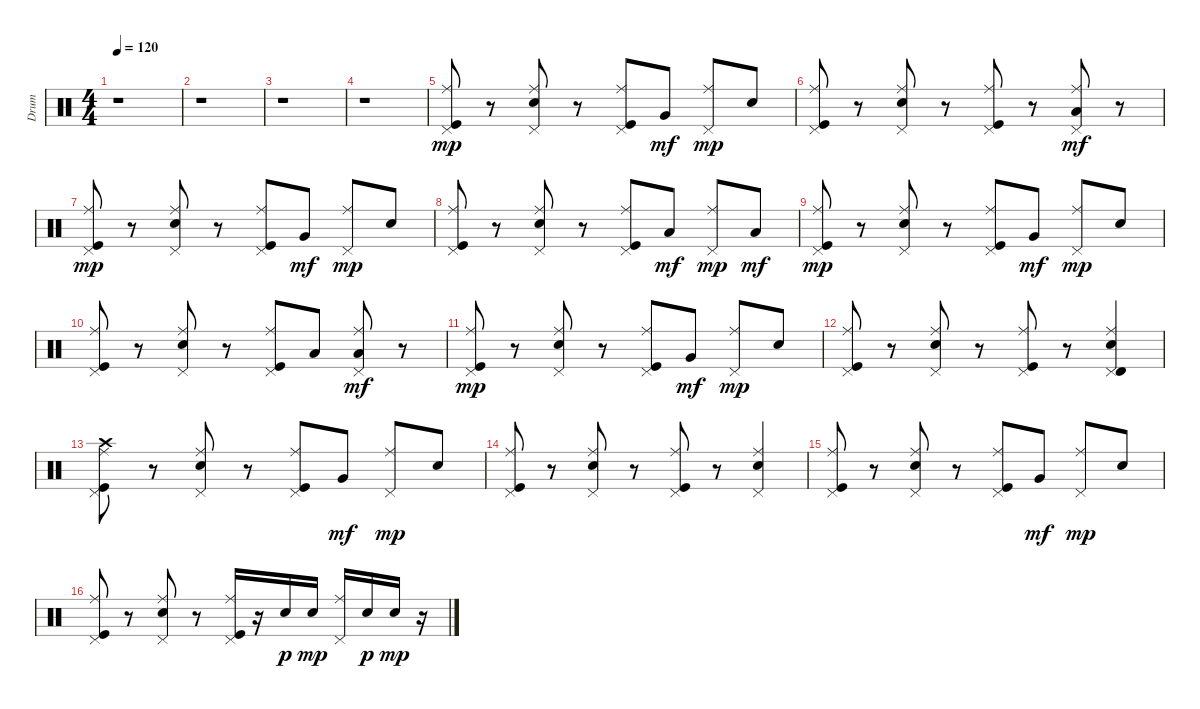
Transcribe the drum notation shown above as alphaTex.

\track ("Drum" "Drum") {instrument percussion}
\staff {score}
\articulation defaults
\ts (4 4)
\tempo 120
\clef neutral
\ks c
r.1{dy mp} |
r.1 |
r.1 |
r.1 |
("Pedal Hi-Hat (hit)" "Ride (middle)" "Kick (hit)").8 r.8 ("Pedal Hi-Hat (hit)" "Snare (hit) 2" "Ride (middle)").8 r.8 ("Pedal Hi-Hat (hit)" "Ride (middle)" "Kick (hit)").8 "Very Low Tom (hit)".8{dy mf} ("Pedal Hi-Hat (hit)" "Ride (middle)").8{dy mp} "Snare (hit) 2".8 |
("Pedal Hi-Hat (hit)" "Ride (middle)" "Kick (hit)").8 r.8 ("Pedal Hi-Hat (hit)" "Snare (hit) 2" "Ride (middle)").8 r.8 ("Pedal Hi-Hat (hit)" "Ride (middle)" "Kick (hit)").8 r.8 ("Pedal Hi-Hat (hit)" "Ride (middle)" "Low Floor Tom (hit)").8{dy mf} r.8 |
("Pedal Hi-Hat (hit)" "Ride (middle)" "Kick (hit)").8{dy mp} r.8 ("Pedal Hi-Hat (hit)" "Snare (hit) 2" "Ride (middle)").8 r.8 ("Pedal Hi-Hat (hit)" "Ride (middle)" "Kick (hit)").8 "Very Low Tom (hit)".8{dy mf} ("Pedal Hi-Hat (hit)" "Ride (middle)").8{dy mp} "Snare (hit) 2".8 |
("Pedal Hi-Hat (hit)" "Ride (middle)" "Kick (hit)").8 r.8 ("Pedal Hi-Hat (hit)" "Snare (hit) 2" "Ride (middle)").8 r.8 ("Pedal Hi-Hat (hit)" "Ride (middle)" "Kick (hit)").8 "Low Floor Tom (hit)".8{dy mf} ("Pedal Hi-Hat (hit)" "Ride (middle)").8{dy mp} "Low Floor Tom (hit)".8{dy mf} |
("Pedal Hi-Hat (hit)" "Ride (middle)" "Kick (hit)").8{dy mp} r.8 ("Pedal Hi-Hat (hit)" "Snare (hit) 2" "Ride (middle)").8 r.8 ("Pedal Hi-Hat (hit)" "Ride (middle)" "Kick (hit)").8 "Very Low Tom (hit)".8{dy mf} ("Pedal Hi-Hat (hit)" "Ride (middle)").8{dy mp} "Snare (hit) 2".8 |
("Pedal Hi-Hat (hit)" "Ride (middle)" "Kick (hit)").8 r.8 ("Pedal Hi-Hat (hit)" "Snare (hit) 2" "Ride (middle)").8 r.8 ("Pedal Hi-Hat (hit)" "Ride (middle)" "Kick (hit)").8 "Low Tom (hit)".8 ("Pedal Hi-Hat (hit)" "Ride (middle)" "Low Floor Tom (hit)").8{dy mf} r.8 |
("Pedal Hi-Hat (hit)" "Ride (middle)" "Kick (hit)").8{dy mp} r.8 ("Pedal Hi-Hat (hit)" "Snare (hit) 2" "Ride (middle)").8 r.8 ("Pedal Hi-Hat (hit)" "Ride (middle)" "Kick (hit)").8 "Very Low Tom (hit)".8{dy mf} ("Pedal Hi-Hat (hit)" "Ride (middle)").8{dy mp} "Snare (hit) 2".8 |
("Pedal Hi-Hat (hit)" "Ride (middle)" "Kick (hit)").8 r.8 ("Pedal Hi-Hat (hit)" "Snare (hit) 2" "Ride (middle)").8 r.8 ("Pedal Hi-Hat (hit)" "Ride (middle)" "Kick (hit)").8 r.8 ("Pedal Hi-Hat (hit)" "Electric Snare (hit)" "Timbale high (hit)" "Ride (middle)").4 |
("Pedal Hi-Hat (hit)" "Crash high (hit)" "Ride (middle)" "Kick (hit)").8 r.8 ("Pedal Hi-Hat (hit)" "Snare (hit) 2" "Ride (middle)").8 r.8 ("Pedal Hi-Hat (hit)" "Ride (middle)" "Kick (hit)").8 "Very Low Tom (hit)".8{dy mf} ("Pedal Hi-Hat (hit)" "Ride (middle)").8{dy mp} "Snare (hit) 2".8 |
("Pedal Hi-Hat (hit)" "Ride (middle)" "Kick (hit)").8 r.8 ("Pedal Hi-Hat (hit)" "Snare (hit) 2" "Ride (middle)").8 r.8 ("Pedal Hi-Hat (hit)" "Ride (middle)" "Kick (hit)").8 r.8 ("Pedal Hi-Hat (hit)" "Snare (hit) 2" "Ride (middle)").4 |
("Pedal Hi-Hat (hit)" "Ride (middle)" "Kick (hit)").8 r.8 ("Pedal Hi-Hat (hit)" "Snare (hit) 2" "Ride (middle)").8 r.8 ("Pedal Hi-Hat (hit)" "Ride (middle)" "Kick (hit)").8 "Very Low Tom (hit)".8{dy mf} ("Pedal Hi-Hat (hit)" "Ride (middle)").8{dy mp} "Snare (hit) 2".8 |
("Pedal Hi-Hat (hit)" "Ride (middle)" "Kick (hit)").8 r.8 ("Pedal Hi-Hat (hit)" "Snare (hit) 2" "Ride (middle)").8 r.8 ("Pedal Hi-Hat (hit)" "Ride (middle)" "Kick (hit)").16 r.16 "Snare (hit) 2".16{dy p} "Snare (hit) 2".16{dy mp} ("Pedal Hi-Hat (hit)" "Ride (middle)").16 "Snare (hit) 2".16{dy p} "Snare (hit) 2".16{dy mp} r.16
